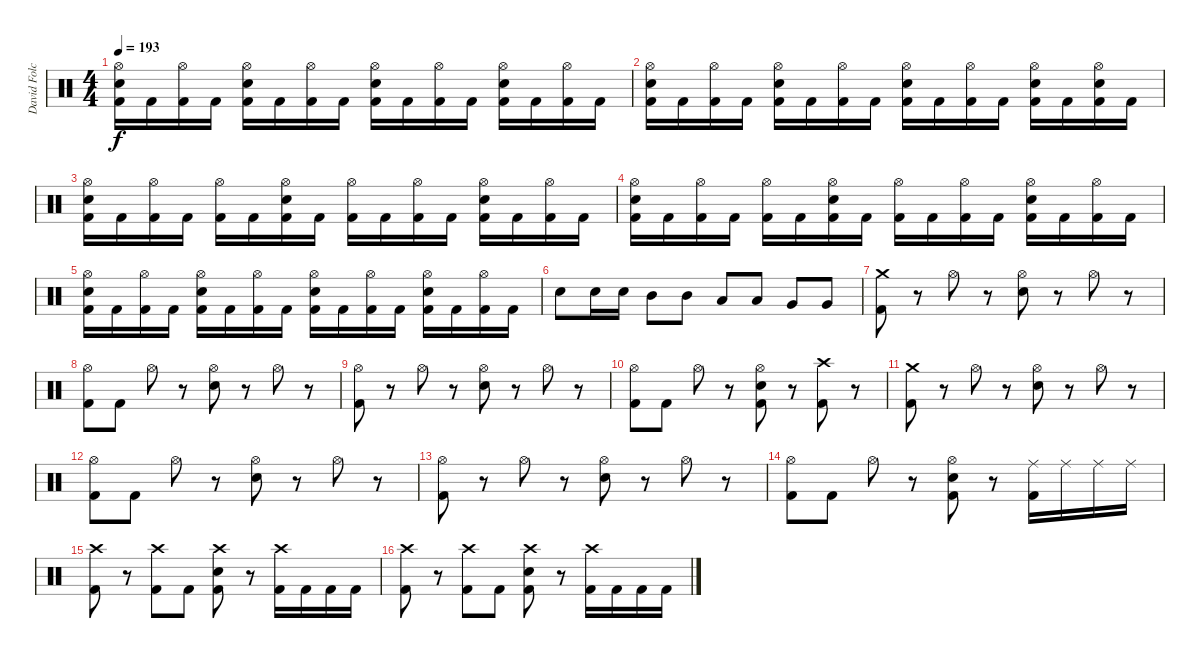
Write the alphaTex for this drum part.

\track ("David Folchitto (Drums)" "David Folc") {instrument percussion}
\staff {score}
\articulation defaults
\ts (4 4)
\tempo 193
\clef neutral
\ks c
("Hi-Hat (open)" "Snare (hit) 2" "Kick (hit) 2").16{dy f} "Kick (hit) 2".16 ("Hi-Hat (open)" "Kick (hit) 2").16 "Kick (hit) 2".16 ("Hi-Hat (open)" "Snare (hit) 2" "Kick (hit) 2").16 "Kick (hit) 2".16 ("Hi-Hat (open)" "Kick (hit) 2").16 "Kick (hit) 2".16 ("Hi-Hat (open)" "Snare (hit) 2" "Kick (hit) 2").16 "Kick (hit) 2".16 ("Hi-Hat (open)" "Kick (hit) 2").16 "Kick (hit) 2".16 ("Hi-Hat (open)" "Snare (hit) 2" "Kick (hit) 2").16 "Kick (hit) 2".16 ("Hi-Hat (open)" "Kick (hit) 2").16 "Kick (hit) 2".16 |
("Hi-Hat (open)" "Snare (hit) 2" "Kick (hit) 2").16 "Kick (hit) 2".16 ("Hi-Hat (open)" "Kick (hit) 2").16 "Kick (hit) 2".16 ("Hi-Hat (open)" "Snare (hit) 2" "Kick (hit) 2").16 "Kick (hit) 2".16 ("Hi-Hat (open)" "Kick (hit) 2").16 "Kick (hit) 2".16 ("Hi-Hat (open)" "Snare (hit) 2" "Kick (hit) 2").16 "Kick (hit) 2".16 ("Hi-Hat (open)" "Kick (hit) 2").16 "Kick (hit) 2".16 ("Hi-Hat (open)" "Snare (hit) 2" "Kick (hit) 2").16 "Kick (hit) 2".16 ("Hi-Hat (open)" "Snare (hit) 2" "Kick (hit) 2").16 "Kick (hit) 2".16 |
("Hi-Hat (open)" "Snare (hit) 2" "Kick (hit) 2").16 "Kick (hit) 2".16 ("Hi-Hat (open)" "Kick (hit) 2").16 "Kick (hit) 2".16 ("Hi-Hat (open)" "Kick (hit) 2").16 "Kick (hit) 2".16 ("Hi-Hat (open)" "Snare (hit) 2" "Kick (hit) 2").16 "Kick (hit) 2".16 ("Hi-Hat (open)" "Kick (hit) 2").16 "Kick (hit) 2".16 ("Hi-Hat (open)" "Kick (hit) 2").16 "Kick (hit) 2".16 ("Hi-Hat (open)" "Snare (hit) 2" "Kick (hit) 2").16 "Kick (hit) 2".16 ("Hi-Hat (open)" "Kick (hit) 2").16 "Kick (hit) 2".16 |
("Hi-Hat (open)" "Snare (hit) 2" "Kick (hit) 2").16 "Kick (hit) 2".16 ("Hi-Hat (open)" "Kick (hit) 2").16 "Kick (hit) 2".16 ("Hi-Hat (open)" "Kick (hit) 2").16 "Kick (hit) 2".16 ("Hi-Hat (open)" "Snare (hit) 2" "Kick (hit) 2").16 "Kick (hit) 2".16 ("Hi-Hat (open)" "Kick (hit) 2").16 "Kick (hit) 2".16 ("Hi-Hat (open)" "Kick (hit) 2").16 "Kick (hit) 2".16 ("Hi-Hat (open)" "Snare (hit) 2" "Kick (hit) 2").16 "Kick (hit) 2".16 ("Hi-Hat (open)" "Kick (hit) 2").16 "Kick (hit) 2".16 |
("Hi-Hat (open)" "Snare (hit) 2" "Kick (hit) 2").16 "Kick (hit) 2".16 ("Hi-Hat (open)" "Kick (hit) 2").16 "Kick (hit) 2".16 ("Hi-Hat (open)" "Snare (hit) 2" "Kick (hit) 2").16 "Kick (hit) 2".16 ("Hi-Hat (open)" "Kick (hit) 2").16 "Kick (hit) 2".16 ("Hi-Hat (open)" "Snare (hit) 2" "Kick (hit) 2").16 "Kick (hit) 2".16 ("Hi-Hat (open)" "Kick (hit) 2").16 "Kick (hit) 2".16 ("Hi-Hat (open)" "Snare (hit) 2" "Kick (hit) 2").16 "Kick (hit) 2".16 ("Hi-Hat (open)" "Kick (hit) 2").16 "Kick (hit) 2".16 |
"Snare (hit) 2".8 "Snare (hit) 2".16 "Snare (hit) 2".16 "Mid Tom (hit)".8 "Mid Tom (hit)".8 "Low Tom (hit)".8 "Low Tom (hit)".8 "Very Low Tom (hit)".8 "Very Low Tom (hit)".8 |
("Crash medium (hit)" "Kick (hit) 2").8 r.8 "Hi-Hat (open)".8 r.8 ("Hi-Hat (open)" "Snare (hit) 2").8 r.8 "Hi-Hat (open)".8 r.8 |
("Hi-Hat (open)" "Kick (hit) 2").8 "Kick (hit) 2".8 "Hi-Hat (open)".8 r.8 ("Hi-Hat (open)" "Snare (hit) 2").8 r.8 "Hi-Hat (open)".8 r.8 |
("Hi-Hat (open)" "Kick (hit) 2").8 r.8 "Hi-Hat (open)".8 r.8 ("Hi-Hat (open)" "Snare (hit) 2").8 r.8 "Hi-Hat (open)".8 r.8 |
("Hi-Hat (open)" "Kick (hit) 2").8 "Kick (hit) 2".8 "Hi-Hat (open)".8 r.8 ("Hi-Hat (open)" "Snare (hit) 2" "Kick (hit) 2").8 r.8 ("Crash high (hit)" "Kick (hit) 2").8 r.8 |
("Crash medium (hit)" "Kick (hit) 2").8 r.8 "Hi-Hat (open)".8 r.8 ("Hi-Hat (open)" "Snare (hit) 2").8 r.8 "Hi-Hat (open)".8 r.8 |
("Hi-Hat (open)" "Kick (hit) 2").8 "Kick (hit) 2".8 "Hi-Hat (open)".8 r.8 ("Hi-Hat (open)" "Snare (hit) 2").8 r.8 "Hi-Hat (open)".8 r.8 |
("Hi-Hat (open)" "Kick (hit) 2").8 r.8 "Hi-Hat (open)".8 r.8 ("Hi-Hat (open)" "Snare (hit) 2").8 r.8 "Hi-Hat (open)".8 r.8 |
("Hi-Hat (open)" "Kick (hit) 2").8 "Kick (hit) 2".8 "Hi-Hat (open)".8 r.8 ("Hi-Hat (open)" "Snare (hit) 2" "Kick (hit) 2").8 r.8 ("Ride (middle)" "Kick (hit) 2").16 "Ride (middle)".16 "Ride (middle)".16 "Ride (middle)".16 |
("Crash high (hit)" "Kick (hit) 2").8 r.8 ("Crash high (hit)" "Kick (hit) 2").8 "Kick (hit) 2".8 ("Crash high (hit)" "Snare (hit) 2" "Kick (hit) 2").8 r.8 ("Crash high (hit)" "Kick (hit) 2").16 "Kick (hit) 2".16 "Kick (hit) 2".16 "Kick (hit) 2".16 |
("Crash high (hit)" "Kick (hit) 2").8 r.8 ("Crash high (hit)" "Kick (hit) 2").8 "Kick (hit) 2".8 ("Crash high (hit)" "Snare (hit) 2" "Kick (hit) 2").8 r.8 ("Crash high (hit)" "Kick (hit) 2").16 "Kick (hit) 2".16 "Kick (hit) 2".16 "Kick (hit) 2".16
